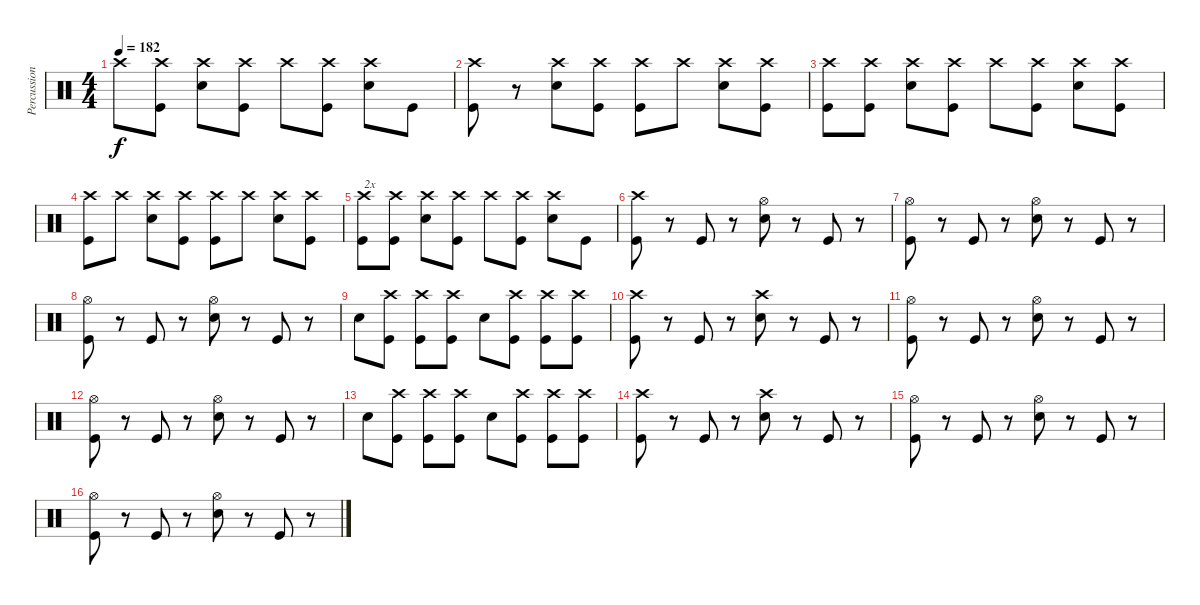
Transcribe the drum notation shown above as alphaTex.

\track ("Percussion" "Percussion") {instrument percussion}
\staff {score}
\articulation defaults
\ts (4 4)
\tempo 182
\clef neutral
\ks c "Crash high (hit)".8{dy f}
("Crash high (hit)" "Kick (hit)").8 ("Crash high (hit)" "Snare (hit) 2").8 ("Crash high (hit)" "Kick (hit)").8 "Crash high (hit)".8 ("Crash high (hit)" "Kick (hit)").8 ("Crash high (hit)" "Snare (hit) 2").8 "Kick (hit)".8 |
("Crash high (hit)" "Kick (hit)").8 r.8 ("Crash high (hit)" "Snare (hit) 2").8 ("Crash high (hit)" "Kick (hit)").8 ("Crash high (hit)" "Kick (hit)").8 "Crash high (hit)".8 ("Crash high (hit)" "Snare (hit) 2").8 ("Crash high (hit)" "Kick (hit)").8 |
("Crash high (hit)" "Kick (hit)").8 ("Crash high (hit)" "Kick (hit)").8 ("Crash high (hit)" "Snare (hit) 2").8 ("Crash high (hit)" "Kick (hit)").8 "Crash high (hit)".8 ("Crash high (hit)" "Kick (hit)").8 ("Crash high (hit)" "Snare (hit) 2").8 ("Crash high (hit)" "Kick (hit)").8 |
("Crash high (hit)" "Kick (hit)").8 "Crash high (hit)".8 ("Crash high (hit)" "Snare (hit) 2").8 ("Crash high (hit)" "Kick (hit)").8 ("Crash high (hit)" "Kick (hit)").8 "Crash high (hit)".8 ("Crash high (hit)" "Snare (hit) 2").8 ("Crash high (hit)" "Kick (hit)").8 |
("Crash high (hit)" "Kick (hit)").8{txt "2x"} ("Crash high (hit)" "Kick (hit)").8 ("Crash high (hit)" "Snare (hit) 2").8 ("Crash high (hit)" "Kick (hit)").8 "Crash high (hit)".8 ("Crash high (hit)" "Kick (hit)").8 ("Crash high (hit)" "Snare (hit) 2").8 "Kick (hit)".8 |
("Crash high (hit)" "Kick (hit)").8 r.8 "Kick (hit)".8 r.8 ("Hi-Hat (open)" "Snare (hit) 2").8 r.8 "Kick (hit)".8 r.8 |
("Hi-Hat (open)" "Kick (hit)").8 r.8 "Kick (hit)".8 r.8 ("Hi-Hat (open)" "Snare (hit) 2").8 r.8 "Kick (hit)".8 r.8 |
("Hi-Hat (open)" "Kick (hit)").8 r.8 "Kick (hit)".8 r.8 ("Hi-Hat (open)" "Snare (hit) 2").8 r.8 "Kick (hit)".8 r.8 |
"Snare (hit) 2".8 ("Crash high (hit)" "Kick (hit)").8 ("Crash high (hit)" "Kick (hit)").8 ("Crash high (hit)" "Kick (hit)").8 "Snare (hit) 2".8 ("Crash high (hit)" "Kick (hit)").8 ("Crash high (hit)" "Kick (hit)").8 ("Crash high (hit)" "Kick (hit)").8 |
("Crash high (hit)" "Kick (hit)").8 r.8 "Kick (hit)".8 r.8 ("Crash high (hit)" "Snare (hit) 2").8 r.8 "Kick (hit)".8 r.8 |
("Hi-Hat (open)" "Kick (hit)").8 r.8 "Kick (hit)".8 r.8 ("Hi-Hat (open)" "Snare (hit) 2").8 r.8 "Kick (hit)".8 r.8 |
("Hi-Hat (open)" "Kick (hit)").8 r.8 "Kick (hit)".8 r.8 ("Hi-Hat (open)" "Snare (hit) 2").8 r.8 "Kick (hit)".8 r.8 |
"Snare (hit) 2".8 ("Crash high (hit)" "Kick (hit)").8 ("Crash high (hit)" "Kick (hit)").8 ("Crash high (hit)" "Kick (hit)").8 "Snare (hit) 2".8 ("Crash high (hit)" "Kick (hit)").8 ("Crash high (hit)" "Kick (hit)").8 ("Crash high (hit)" "Kick (hit)").8 |
("Crash high (hit)" "Kick (hit)").8 r.8 "Kick (hit)".8 r.8 ("Crash high (hit)" "Snare (hit) 2").8 r.8 "Kick (hit)".8 r.8 |
("Hi-Hat (open)" "Kick (hit)").8 r.8 "Kick (hit)".8 r.8 ("Hi-Hat (open)" "Snare (hit) 2").8 r.8 "Kick (hit)".8 r.8 |
("Hi-Hat (open)" "Kick (hit)").8 r.8 "Kick (hit)".8 r.8 ("Hi-Hat (open)" "Snare (hit) 2").8 r.8 "Kick (hit)".8 r.8
